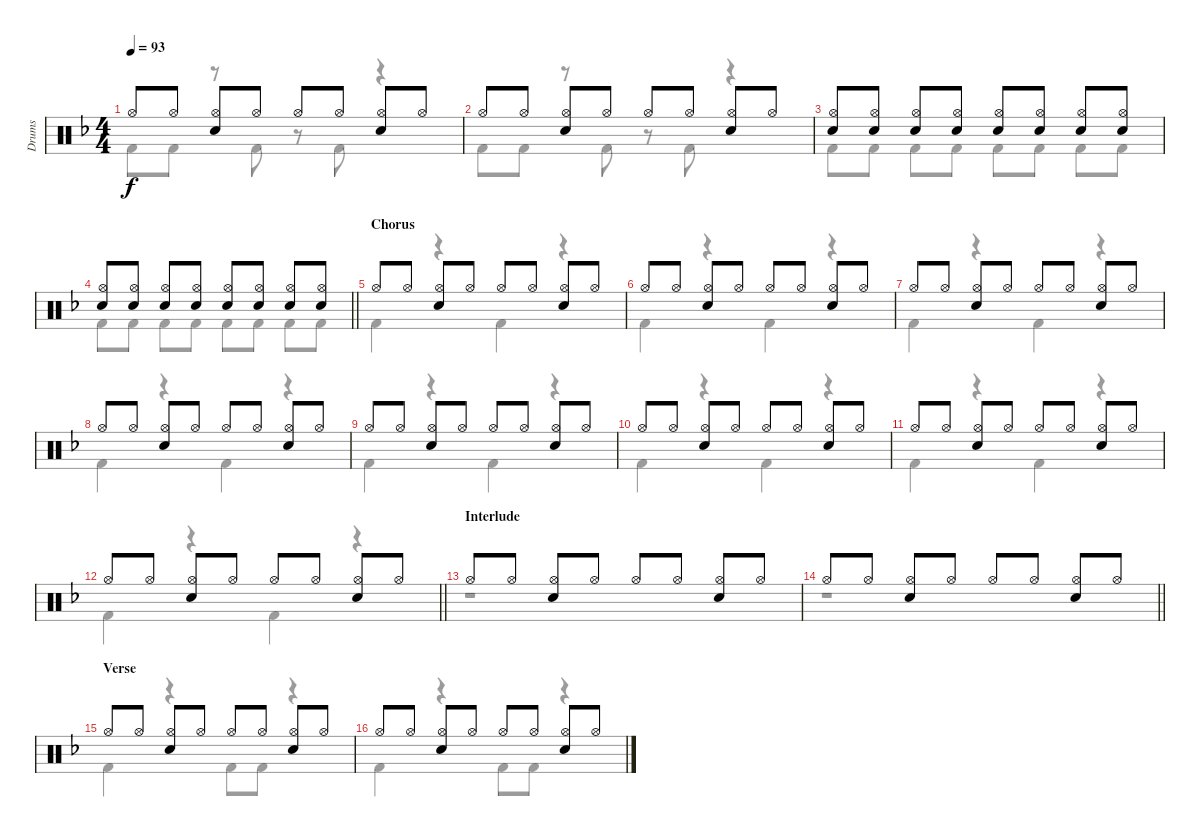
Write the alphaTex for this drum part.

\track ("Drums" "Drums") {instrument percussion}
\staff {score}
\articulation defaults
\voice
\ts (4 4)
\tempo 93
\clef neutral
\ks f "Hi-Hat (open)".8{dy f} "Hi-Hat (open)".8
("Hi-Hat (open)" "Electric Snare (hit)").8 "Hi-Hat (open)".8 "Hi-Hat (open)".8 "Hi-Hat (open)".8 ("Hi-Hat (open)" "Electric Snare (hit)").8 "Hi-Hat (open)".8 |
"Hi-Hat (open)".8 "Hi-Hat (open)".8 ("Hi-Hat (open)" "Electric Snare (hit)").8 "Hi-Hat (open)".8 "Hi-Hat (open)".8 "Hi-Hat (open)".8 ("Hi-Hat (open)" "Electric Snare (hit)").8 "Hi-Hat (open)".8 |
("Hi-Hat (open)" "Electric Snare (hit)").8 ("Hi-Hat (open)" "Electric Snare (hit)").8 ("Hi-Hat (open)" "Electric Snare (hit)").8 ("Hi-Hat (open)" "Electric Snare (hit)").8 ("Hi-Hat (open)" "Electric Snare (hit)").8 ("Hi-Hat (open)" "Electric Snare (hit)").8 ("Hi-Hat (open)" "Electric Snare (hit)").8 ("Hi-Hat (open)" "Electric Snare (hit)").8 |
\barLineRight lightlight
("Hi-Hat (open)" "Electric Snare (hit)").8 ("Hi-Hat (open)" "Electric Snare (hit)").8 ("Hi-Hat (open)" "Electric Snare (hit)").8 ("Hi-Hat (open)" "Electric Snare (hit)").8 ("Hi-Hat (open)" "Electric Snare (hit)").8 ("Hi-Hat (open)" "Electric Snare (hit)").8 ("Hi-Hat (open)" "Electric Snare (hit)").8 ("Hi-Hat (open)" "Electric Snare (hit)").8 |
\section ("" "Chorus")
"Hi-Hat (open)".8 "Hi-Hat (open)".8 ("Hi-Hat (open)" "Electric Snare (hit)").8 "Hi-Hat (open)".8 "Hi-Hat (open)".8 "Hi-Hat (open)".8 ("Hi-Hat (open)" "Electric Snare (hit)").8 "Hi-Hat (open)".8 |
"Hi-Hat (open)".8 "Hi-Hat (open)".8 ("Hi-Hat (open)" "Electric Snare (hit)").8 "Hi-Hat (open)".8 "Hi-Hat (open)".8 "Hi-Hat (open)".8 ("Hi-Hat (open)" "Electric Snare (hit)").8 "Hi-Hat (open)".8 |
"Hi-Hat (open)".8 "Hi-Hat (open)".8 ("Hi-Hat (open)" "Electric Snare (hit)").8 "Hi-Hat (open)".8 "Hi-Hat (open)".8 "Hi-Hat (open)".8 ("Hi-Hat (open)" "Electric Snare (hit)").8 "Hi-Hat (open)".8 |
"Hi-Hat (open)".8 "Hi-Hat (open)".8 ("Hi-Hat (open)" "Electric Snare (hit)").8 "Hi-Hat (open)".8 "Hi-Hat (open)".8 "Hi-Hat (open)".8 ("Hi-Hat (open)" "Electric Snare (hit)").8 "Hi-Hat (open)".8 |
"Hi-Hat (open)".8 "Hi-Hat (open)".8 ("Hi-Hat (open)" "Electric Snare (hit)").8 "Hi-Hat (open)".8 "Hi-Hat (open)".8 "Hi-Hat (open)".8 ("Hi-Hat (open)" "Electric Snare (hit)").8 "Hi-Hat (open)".8 |
"Hi-Hat (open)".8 "Hi-Hat (open)".8 ("Hi-Hat (open)" "Electric Snare (hit)").8 "Hi-Hat (open)".8 "Hi-Hat (open)".8 "Hi-Hat (open)".8 ("Hi-Hat (open)" "Electric Snare (hit)").8 "Hi-Hat (open)".8 |
"Hi-Hat (open)".8 "Hi-Hat (open)".8 ("Hi-Hat (open)" "Electric Snare (hit)").8 "Hi-Hat (open)".8 "Hi-Hat (open)".8 "Hi-Hat (open)".8 ("Hi-Hat (open)" "Electric Snare (hit)").8 "Hi-Hat (open)".8 |
\barLineRight lightlight "Hi-Hat (open)".8 "Hi-Hat (open)".8
("Hi-Hat (open)" "Electric Snare (hit)").8 "Hi-Hat (open)".8 "Hi-Hat (open)".8 "Hi-Hat (open)".8 ("Hi-Hat (open)" "Electric Snare (hit)").8 "Hi-Hat (open)".8 |
\section ("" "Interlude")
"Hi-Hat (open)".8 "Hi-Hat (open)".8 ("Hi-Hat (open)" "Electric Snare (hit)").8 "Hi-Hat (open)".8 "Hi-Hat (open)".8 "Hi-Hat (open)".8 ("Hi-Hat (open)" "Electric Snare (hit)").8 "Hi-Hat (open)".8 |
\barLineRight lightlight "Hi-Hat (open)".8 "Hi-Hat (open)".8
("Hi-Hat (open)" "Electric Snare (hit)").8 "Hi-Hat (open)".8 "Hi-Hat (open)".8 "Hi-Hat (open)".8 ("Hi-Hat (open)" "Electric Snare (hit)").8 "Hi-Hat (open)".8 |
\section ("" "Verse")
"Hi-Hat (open)".8 "Hi-Hat (open)".8 ("Hi-Hat (open)" "Electric Snare (hit)").8 "Hi-Hat (open)".8 "Hi-Hat (open)".8 "Hi-Hat (open)".8 ("Hi-Hat (open)" "Electric Snare (hit)").8 "Hi-Hat (open)".8 |
"Hi-Hat (open)".8 "Hi-Hat (open)".8 ("Hi-Hat (open)" "Electric Snare (hit)").8 "Hi-Hat (open)".8 "Hi-Hat (open)".8 "Hi-Hat (open)".8 ("Hi-Hat (open)" "Electric Snare (hit)").8 "Hi-Hat (open)".8
\voice
\clef neutral
\ottava regular
\simile none
\ks f "Kick (hit) 2".8{dy f} "Kick (hit) 2".8
r.8 "Kick (hit) 2".8 r.8 "Kick (hit) 2".8 r.4 |
"Kick (hit) 2".8 "Kick (hit) 2".8 r.8 "Kick (hit) 2".8 r.8 "Kick (hit) 2".8 r.4 |
"Kick (hit) 2".8 "Kick (hit) 2".8 "Kick (hit) 2".8 "Kick (hit) 2".8 "Kick (hit) 2".8 "Kick (hit) 2".8 "Kick (hit) 2".8 "Kick (hit) 2".8 |
\barLineRight lightlight "Kick (hit) 2".8 "Kick (hit) 2".8 "Kick (hit) 2".8 "Kick (hit) 2".8 "Kick (hit) 2".8 "Kick (hit) 2".8 "Kick (hit) 2".8 "Kick (hit) 2".8
|
"Kick (hit) 2".4 r.4 "Kick (hit) 2".4 r.4 |
"Kick (hit) 2".4 r.4 "Kick (hit) 2".4 r.4 |
"Kick (hit) 2".4 r.4 "Kick (hit) 2".4 r.4 |
"Kick (hit) 2".4 r.4 "Kick (hit) 2".4 r.4 |
"Kick (hit) 2".4 r.4 "Kick (hit) 2".4 r.4 |
"Kick (hit) 2".4 r.4 "Kick (hit) 2".4 r.4 |
"Kick (hit) 2".4 r.4 "Kick (hit) 2".4 r.4 |
\barLineRight lightlight "Kick (hit) 2".4
r.4 "Kick (hit) 2".4 r.4 |
r.1 |
\barLineRight lightlight
r.1 |
"Kick (hit) 2".4 r.4 "Kick (hit) 2".8 "Kick (hit) 2".8 r.4 |
"Kick (hit) 2".4 r.4 "Kick (hit) 2".8 "Kick (hit) 2".8 r.4
